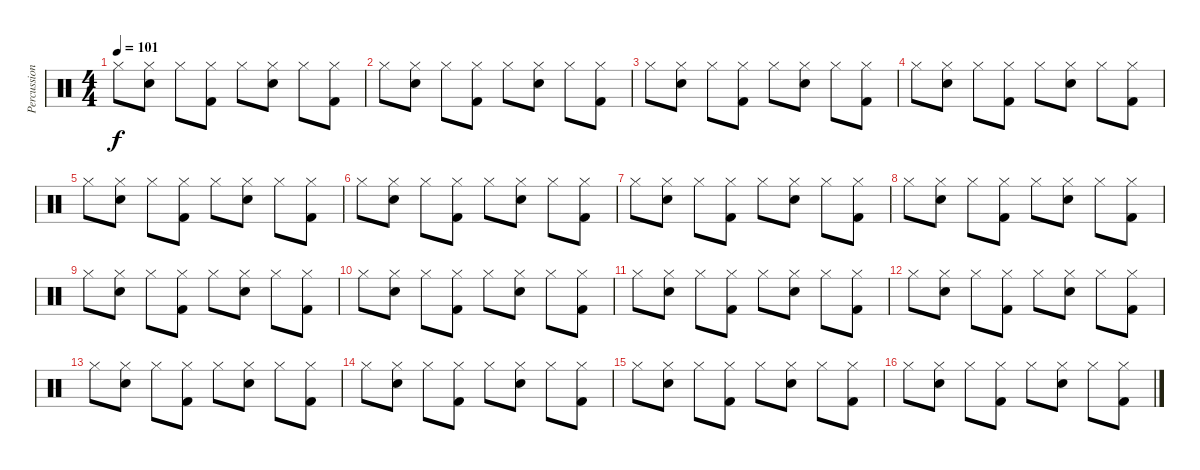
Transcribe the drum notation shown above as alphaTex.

\track ("Percussions" "Percussion") {instrument percussion}
\staff {score}
\articulation defaults
\ts (4 4)
\tempo 101
\clef neutral
\ks c "Hi-Hat (closed)".8{dy f}
("Hi-Hat (closed)" "Electric Snare (hit)").8 "Hi-Hat (closed)".8 ("Hi-Hat (closed)" "Kick (hit) 2").8 "Hi-Hat (closed)".8 ("Hi-Hat (closed)" "Electric Snare (hit)").8 "Hi-Hat (closed)".8 ("Hi-Hat (closed)" "Kick (hit) 2").8 |
"Hi-Hat (closed)".8 ("Hi-Hat (closed)" "Electric Snare (hit)").8 "Hi-Hat (closed)".8 ("Hi-Hat (closed)" "Kick (hit) 2").8 "Hi-Hat (closed)".8 ("Hi-Hat (closed)" "Electric Snare (hit)").8 "Hi-Hat (closed)".8 ("Hi-Hat (closed)" "Kick (hit) 2").8 |
"Hi-Hat (closed)".8 ("Hi-Hat (closed)" "Electric Snare (hit)").8 "Hi-Hat (closed)".8 ("Hi-Hat (closed)" "Kick (hit) 2").8 "Hi-Hat (closed)".8 ("Hi-Hat (closed)" "Electric Snare (hit)").8 "Hi-Hat (closed)".8 ("Hi-Hat (closed)" "Kick (hit) 2").8 |
"Hi-Hat (closed)".8 ("Hi-Hat (closed)" "Electric Snare (hit)").8 "Hi-Hat (closed)".8 ("Hi-Hat (closed)" "Kick (hit) 2").8 "Hi-Hat (closed)".8 ("Hi-Hat (closed)" "Electric Snare (hit)").8 "Hi-Hat (closed)".8 ("Hi-Hat (closed)" "Kick (hit) 2").8 |
"Hi-Hat (closed)".8 ("Hi-Hat (closed)" "Electric Snare (hit)").8 "Hi-Hat (closed)".8 ("Hi-Hat (closed)" "Kick (hit) 2").8 "Hi-Hat (closed)".8 ("Hi-Hat (closed)" "Electric Snare (hit)").8 "Hi-Hat (closed)".8 ("Hi-Hat (closed)" "Kick (hit) 2").8 |
"Hi-Hat (closed)".8 ("Hi-Hat (closed)" "Electric Snare (hit)").8 "Hi-Hat (closed)".8 ("Hi-Hat (closed)" "Kick (hit) 2").8 "Hi-Hat (closed)".8 ("Hi-Hat (closed)" "Electric Snare (hit)").8 "Hi-Hat (closed)".8 ("Hi-Hat (closed)" "Kick (hit) 2").8 |
"Hi-Hat (closed)".8 ("Hi-Hat (closed)" "Electric Snare (hit)").8 "Hi-Hat (closed)".8 ("Hi-Hat (closed)" "Kick (hit) 2").8 "Hi-Hat (closed)".8 ("Hi-Hat (closed)" "Electric Snare (hit)").8 "Hi-Hat (closed)".8 ("Hi-Hat (closed)" "Kick (hit) 2").8 |
"Hi-Hat (closed)".8 ("Hi-Hat (closed)" "Electric Snare (hit)").8 "Hi-Hat (closed)".8 ("Hi-Hat (closed)" "Kick (hit) 2").8 "Hi-Hat (closed)".8 ("Hi-Hat (closed)" "Electric Snare (hit)").8 "Hi-Hat (closed)".8 ("Hi-Hat (closed)" "Kick (hit) 2").8 |
"Hi-Hat (closed)".8 ("Hi-Hat (closed)" "Electric Snare (hit)").8 "Hi-Hat (closed)".8 ("Hi-Hat (closed)" "Kick (hit) 2").8 "Hi-Hat (closed)".8 ("Hi-Hat (closed)" "Electric Snare (hit)").8 "Hi-Hat (closed)".8 ("Hi-Hat (closed)" "Kick (hit) 2").8 |
"Hi-Hat (closed)".8 ("Hi-Hat (closed)" "Electric Snare (hit)").8 "Hi-Hat (closed)".8 ("Hi-Hat (closed)" "Kick (hit) 2").8 "Hi-Hat (closed)".8 ("Hi-Hat (closed)" "Electric Snare (hit)").8 "Hi-Hat (closed)".8 ("Hi-Hat (closed)" "Kick (hit) 2").8 |
"Hi-Hat (closed)".8 ("Hi-Hat (closed)" "Electric Snare (hit)").8 "Hi-Hat (closed)".8 ("Hi-Hat (closed)" "Kick (hit) 2").8 "Hi-Hat (closed)".8 ("Hi-Hat (closed)" "Electric Snare (hit)").8 "Hi-Hat (closed)".8 ("Hi-Hat (closed)" "Kick (hit) 2").8 |
"Hi-Hat (closed)".8 ("Hi-Hat (closed)" "Electric Snare (hit)").8 "Hi-Hat (closed)".8 ("Hi-Hat (closed)" "Kick (hit) 2").8 "Hi-Hat (closed)".8 ("Hi-Hat (closed)" "Electric Snare (hit)").8 "Hi-Hat (closed)".8 ("Hi-Hat (closed)" "Kick (hit) 2").8 |
"Hi-Hat (closed)".8 ("Hi-Hat (closed)" "Electric Snare (hit)").8 "Hi-Hat (closed)".8 ("Hi-Hat (closed)" "Kick (hit) 2").8 "Hi-Hat (closed)".8 ("Hi-Hat (closed)" "Electric Snare (hit)").8 "Hi-Hat (closed)".8 ("Hi-Hat (closed)" "Kick (hit) 2").8 |
"Hi-Hat (closed)".8 ("Hi-Hat (closed)" "Electric Snare (hit)").8 "Hi-Hat (closed)".8 ("Hi-Hat (closed)" "Kick (hit) 2").8 "Hi-Hat (closed)".8 ("Hi-Hat (closed)" "Electric Snare (hit)").8 "Hi-Hat (closed)".8 ("Hi-Hat (closed)" "Kick (hit) 2").8 |
"Hi-Hat (closed)".8 ("Hi-Hat (closed)" "Electric Snare (hit)").8 "Hi-Hat (closed)".8 ("Hi-Hat (closed)" "Kick (hit) 2").8 "Hi-Hat (closed)".8 ("Hi-Hat (closed)" "Electric Snare (hit)").8 "Hi-Hat (closed)".8 ("Hi-Hat (closed)" "Kick (hit) 2").8 |
"Hi-Hat (closed)".8 ("Hi-Hat (closed)" "Electric Snare (hit)").8 "Hi-Hat (closed)".8 ("Hi-Hat (closed)" "Kick (hit) 2").8 "Hi-Hat (closed)".8 ("Hi-Hat (closed)" "Electric Snare (hit)").8 "Hi-Hat (closed)".8 ("Hi-Hat (closed)" "Kick (hit) 2").8
